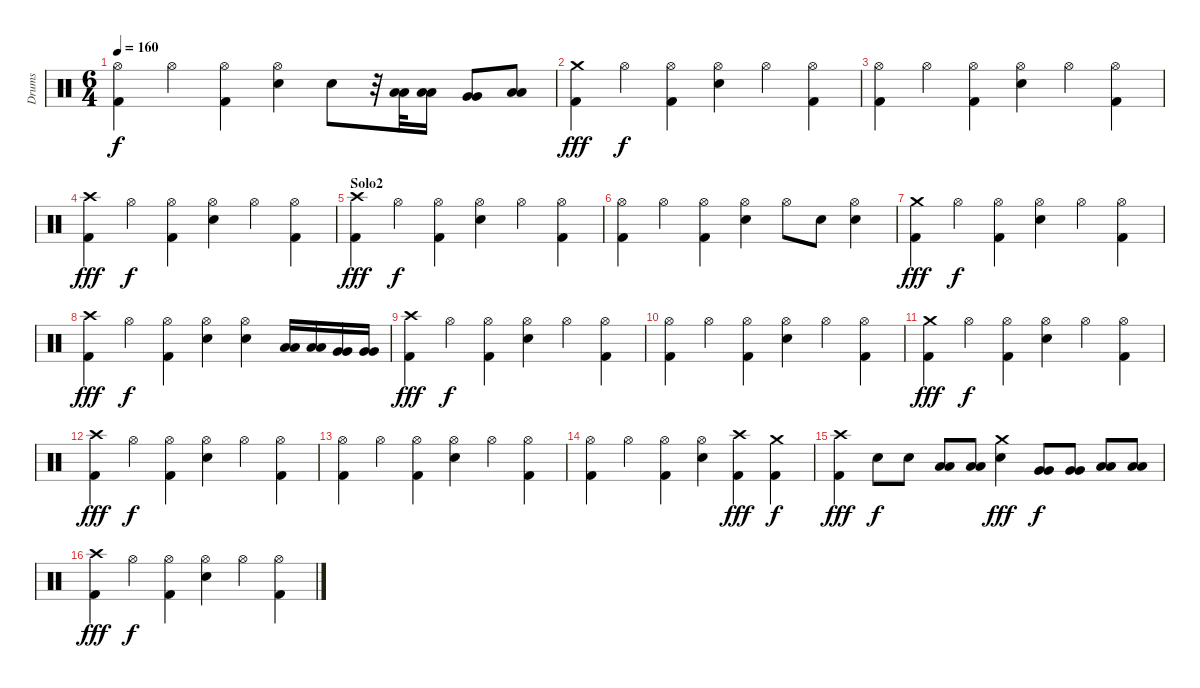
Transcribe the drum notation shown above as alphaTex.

\track ("Drums" "Drums") {instrument percussion}
\staff {score}
\articulation defaults
\ts (6 4)
\tempo 160
\clef neutral
\ks c
("Kick (hit) 2" "Hi-Hat (open)").4{dy f} "Hi-Hat (open)".4 ("Kick (hit) 2" "Hi-Hat (open)").4 ("Electric Snare (hit)" "Hi-Hat (open)").4 "Electric Snare (hit)".8 r.32 ("Low Tom (hit)" "Low Tom (hit)").32 ("Low Tom (hit)" "Low Tom (hit)").16 ("Very Low Tom (hit)" "Very Low Tom (hit)").8 ("Low Floor Tom (hit)" "Low Floor Tom (hit)").8 |
("Kick (hit) 2" "Crash medium (hit)").4{dy fff} "Hi-Hat (open)".4{dy f} ("Kick (hit) 2" "Hi-Hat (open)").4 ("Electric Snare (hit)" "Hi-Hat (open)").4 "Hi-Hat (open)".4 ("Kick (hit) 2" "Hi-Hat (open)").4 |
("Kick (hit) 2" "Hi-Hat (open)").4 "Hi-Hat (open)".4 ("Kick (hit) 2" "Hi-Hat (open)").4 ("Electric Snare (hit)" "Hi-Hat (open)").4 "Hi-Hat (open)".4 ("Kick (hit) 2" "Hi-Hat (open)").4 |
("Kick (hit) 2" "Crash high (hit)").4{dy fff} "Hi-Hat (open)".4{dy f} ("Kick (hit) 2" "Hi-Hat (open)").4 ("Electric Snare (hit)" "Hi-Hat (open)").4 "Hi-Hat (open)".4 ("Kick (hit) 2" "Hi-Hat (open)").4 |
\section ("" "Solo2")
("Kick (hit) 2" "Crash high (hit)").4{dy fff} "Hi-Hat (open)".4{dy f} ("Kick (hit) 2" "Hi-Hat (open)").4 ("Electric Snare (hit)" "Hi-Hat (open)").4 "Hi-Hat (open)".4 ("Kick (hit) 2" "Hi-Hat (open)").4 |
("Kick (hit) 2" "Hi-Hat (open)").4 "Hi-Hat (open)".4 ("Kick (hit) 2" "Hi-Hat (open)").4 ("Electric Snare (hit)" "Hi-Hat (open)").4 "Hi-Hat (open)".8 "Electric Snare (hit)".8 ("Electric Snare (hit)" "Hi-Hat (open)").4 |
("Kick (hit) 2" "Crash medium (hit)").4{dy fff} "Hi-Hat (open)".4{dy f} ("Kick (hit) 2" "Hi-Hat (open)").4 ("Electric Snare (hit)" "Hi-Hat (open)").4 "Hi-Hat (open)".4 ("Kick (hit) 2" "Hi-Hat (open)").4 |
("Kick (hit) 2" "Crash high (hit)").4{dy fff} "Hi-Hat (open)".4{dy f} ("Kick (hit) 2" "Hi-Hat (open)").4 ("Electric Snare (hit)" "Hi-Hat (open)").4 ("Electric Snare (hit)" "Hi-Hat (open)").4 ("Low Tom (hit)" "Low Tom (hit)").16 ("Low Tom (hit)" "Low Tom (hit)").16 ("Very Low Tom (hit)" "Very Low Tom (hit)").16 ("Very Low Tom (hit)" "Very Low Tom (hit)").16 |
("Kick (hit) 2" "Crash high (hit)").4{dy fff} "Hi-Hat (open)".4{dy f} ("Kick (hit) 2" "Hi-Hat (open)").4 ("Electric Snare (hit)" "Hi-Hat (open)").4 "Hi-Hat (open)".4 ("Kick (hit) 2" "Hi-Hat (open)").4 |
("Kick (hit) 2" "Hi-Hat (open)").4 "Hi-Hat (open)".4 ("Kick (hit) 2" "Hi-Hat (open)").4 ("Electric Snare (hit)" "Hi-Hat (open)").4 "Hi-Hat (open)".4 ("Kick (hit) 2" "Hi-Hat (open)").4 |
("Kick (hit) 2" "Crash medium (hit)").4{dy fff} "Hi-Hat (open)".4{dy f} ("Kick (hit) 2" "Hi-Hat (open)").4 ("Electric Snare (hit)" "Hi-Hat (open)").4 "Hi-Hat (open)".4 ("Kick (hit) 2" "Hi-Hat (open)").4 |
("Kick (hit) 2" "Crash high (hit)").4{dy fff} "Hi-Hat (open)".4{dy f} ("Kick (hit) 2" "Hi-Hat (open)").4 ("Electric Snare (hit)" "Hi-Hat (open)").4 "Hi-Hat (open)".4 ("Kick (hit) 2" "Hi-Hat (open)").4 |
("Kick (hit) 2" "Hi-Hat (open)").4 "Hi-Hat (open)".4 ("Kick (hit) 2" "Hi-Hat (open)").4 ("Electric Snare (hit)" "Hi-Hat (open)").4 "Hi-Hat (open)".4 ("Kick (hit) 2" "Hi-Hat (open)").4 |
("Kick (hit) 2" "Hi-Hat (open)").4 "Hi-Hat (open)".4 ("Kick (hit) 2" "Hi-Hat (open)").4 ("Electric Snare (hit)" "Hi-Hat (open)").4 ("Kick (hit) 2" "Crash high (hit)").4{dy fff} ("Kick (hit) 2" "Crash medium (hit)").4{dy f} |
("Kick (hit) 2" "Crash high (hit)").4{dy fff} "Electric Snare (hit)".8{dy f} "Electric Snare (hit)".8 ("Low Tom (hit)" "Low Tom (hit)").8 ("Low Tom (hit)" "Low Tom (hit)").8 ("Electric Snare (hit)" "Crash medium (hit)").4{dy fff} ("Very Low Tom (hit)" "Very Low Tom (hit)").8{dy f} ("Very Low Tom (hit)" "Very Low Tom (hit)").8 ("Low Floor Tom (hit)" "Low Floor Tom (hit)").8 ("Low Floor Tom (hit)" "Low Floor Tom (hit)").8 |
("Kick (hit) 2" "Crash high (hit)").4{dy fff} "Hi-Hat (open)".4{dy f} ("Kick (hit) 2" "Hi-Hat (open)").4 ("Electric Snare (hit)" "Hi-Hat (open)").4 "Hi-Hat (open)".4 ("Kick (hit) 2" "Hi-Hat (open)").4
